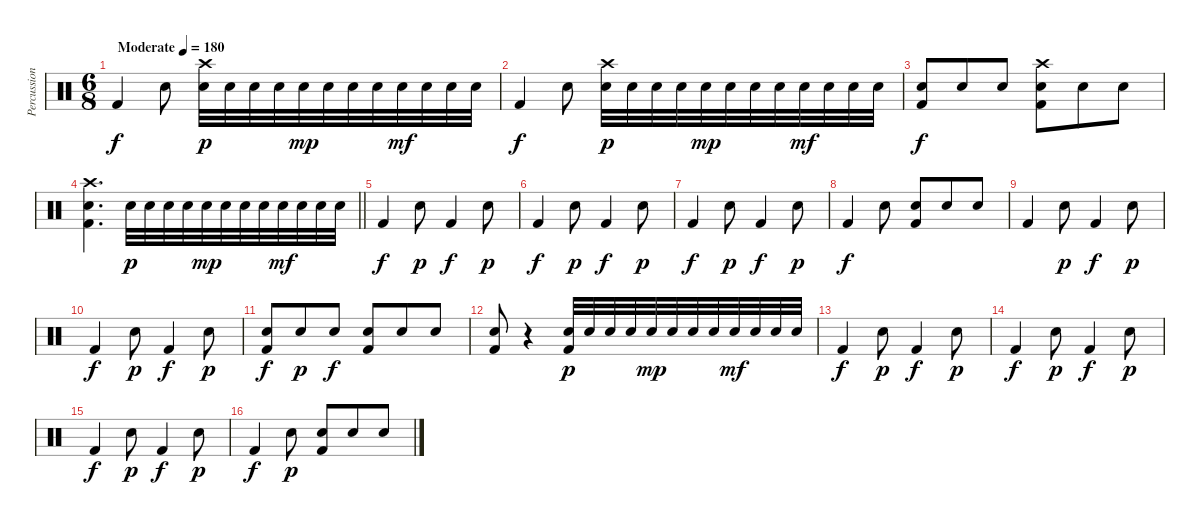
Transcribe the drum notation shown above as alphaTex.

\track ("Percussion" "Percussion") {instrument percussion}
\staff {score}
\articulation defaults
\ts (6 8)
\tempo (180 "Moderate")
\clef neutral
\ks c "Kick (hit) 2".4{dy f} "Snare (hit) 2".8
("Crash high (hit)" "Snare (hit) 2").32{dy p} "Snare (hit) 2".32 "Snare (hit) 2".32 "Snare (hit) 2".32 "Snare (hit) 2".32{dy mp} "Snare (hit) 2".32 "Snare (hit) 2".32 "Snare (hit) 2".32 "Snare (hit) 2".32{dy mf} "Snare (hit) 2".32 "Snare (hit) 2".32 "Snare (hit) 2".32 |
"Kick (hit) 2".4{dy f} "Snare (hit) 2".8 ("Crash high (hit)" "Snare (hit) 2").32{dy p} "Snare (hit) 2".32 "Snare (hit) 2".32 "Snare (hit) 2".32 "Snare (hit) 2".32{dy mp} "Snare (hit) 2".32 "Snare (hit) 2".32 "Snare (hit) 2".32 "Snare (hit) 2".32{dy mf} "Snare (hit) 2".32 "Snare (hit) 2".32 "Snare (hit) 2".32 |
("Snare (hit) 2" "Kick (hit) 2").8{dy f} "Snare (hit) 2".8 "Snare (hit) 2".8 ("Crash high (hit)" "Snare (hit) 2" "Kick (hit) 2").8 "Snare (hit) 2".8 "Snare (hit) 2".8 |
\barLineRight lightlight
("Crash high (hit)" "Snare (hit) 2" "Kick (hit) 2").4{d} "Snare (hit) 2".32{dy p} "Snare (hit) 2".32 "Snare (hit) 2".32 "Snare (hit) 2".32 "Snare (hit) 2".32{dy mp} "Snare (hit) 2".32 "Snare (hit) 2".32 "Snare (hit) 2".32 "Snare (hit) 2".32{dy mf} "Snare (hit) 2".32 "Snare (hit) 2".32 "Snare (hit) 2".32 |
"Kick (hit) 2".4{dy f} "Snare (hit) 2".8{dy p} "Kick (hit) 2".4{dy f} "Snare (hit) 2".8{dy p} |
"Kick (hit) 2".4{dy f} "Snare (hit) 2".8{dy p} "Kick (hit) 2".4{dy f} "Snare (hit) 2".8{dy p} |
"Kick (hit) 2".4{dy f} "Snare (hit) 2".8{dy p} "Kick (hit) 2".4{dy f} "Snare (hit) 2".8{dy p} |
"Kick (hit) 2".4{dy f} "Snare (hit) 2".8 ("Snare (hit) 2" "Kick (hit) 2").8 "Snare (hit) 2".8 "Snare (hit) 2".8 |
"Kick (hit) 2".4 "Snare (hit) 2".8{dy p} "Kick (hit) 2".4{dy f} "Snare (hit) 2".8{dy p} |
"Kick (hit) 2".4{dy f} "Snare (hit) 2".8{dy p} "Kick (hit) 2".4{dy f} "Snare (hit) 2".8{dy p} |
("Snare (hit) 2" "Kick (hit) 2").8{dy f} "Snare (hit) 2".8{dy p} "Snare (hit) 2".8{dy f} ("Snare (hit) 2" "Kick (hit) 2").8 "Snare (hit) 2".8 "Snare (hit) 2".8 |
("Snare (hit) 2" "Kick (hit) 2").8 r.4 ("Snare (hit) 2" "Kick (hit) 2").32{dy p} "Snare (hit) 2".32 "Snare (hit) 2".32 "Snare (hit) 2".32 "Snare (hit) 2".32{dy mp} "Snare (hit) 2".32 "Snare (hit) 2".32 "Snare (hit) 2".32 "Snare (hit) 2".32{dy mf} "Snare (hit) 2".32 "Snare (hit) 2".32 "Snare (hit) 2".32 |
"Kick (hit) 2".4{dy f} "Snare (hit) 2".8{dy p} "Kick (hit) 2".4{dy f} "Snare (hit) 2".8{dy p} |
"Kick (hit) 2".4{dy f} "Snare (hit) 2".8{dy p} "Kick (hit) 2".4{dy f} "Snare (hit) 2".8{dy p} |
"Kick (hit) 2".4{dy f} "Snare (hit) 2".8{dy p} "Kick (hit) 2".4{dy f} "Snare (hit) 2".8{dy p} |
"Kick (hit) 2".4{dy f} "Snare (hit) 2".8{dy p} ("Snare (hit) 2" "Kick (hit) 2").8 "Snare (hit) 2".8 "Snare (hit) 2".8
